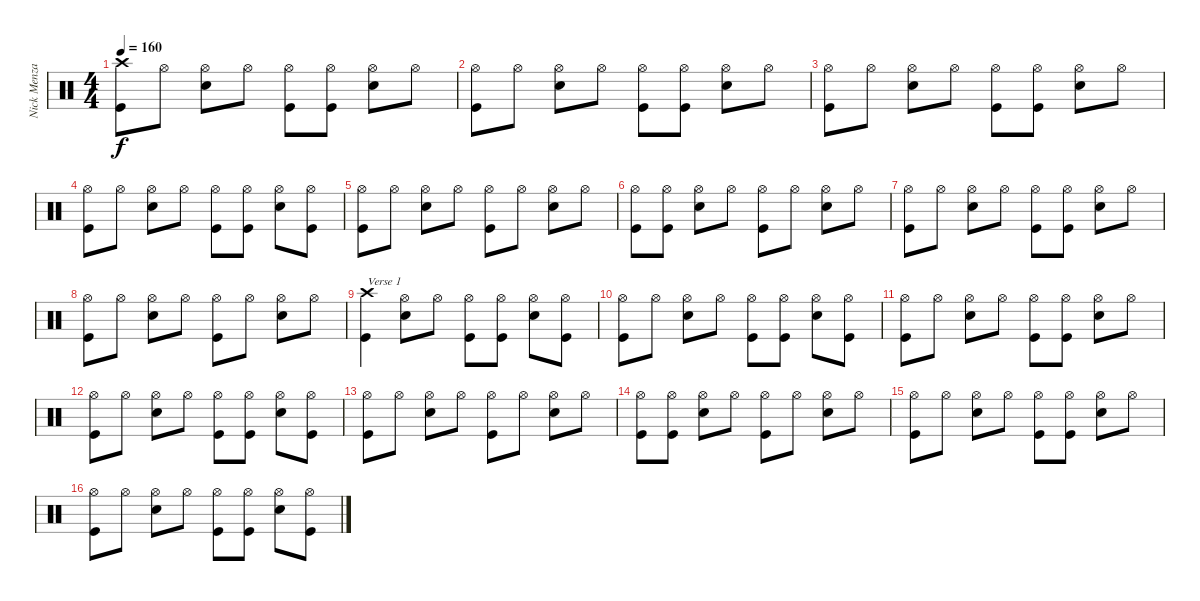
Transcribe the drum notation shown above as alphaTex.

\track ("Nick Menza" "Nick Menza") {instrument percussion}
\staff {score}
\articulation defaults
\ts (4 4)
\tempo 160
\clef neutral
\ks c
("Crash high (hit)" "Kick (hit)").8{dy f} "Hi-Hat (open)".8 ("Hi-Hat (open)" "Snare (hit) 2").8 "Hi-Hat (open)".8 ("Hi-Hat (open)" "Kick (hit)").8 ("Hi-Hat (open)" "Kick (hit)").8 ("Hi-Hat (open)" "Snare (hit) 2").8 "Hi-Hat (open)".8 |
("Hi-Hat (open)" "Kick (hit)").8 "Hi-Hat (open)".8 ("Hi-Hat (open)" "Snare (hit) 2").8 "Hi-Hat (open)".8 ("Hi-Hat (open)" "Kick (hit)").8 ("Hi-Hat (open)" "Kick (hit)").8 ("Hi-Hat (open)" "Snare (hit) 2").8 "Hi-Hat (open)".8 |
("Hi-Hat (open)" "Kick (hit)").8 "Hi-Hat (open)".8 ("Hi-Hat (open)" "Snare (hit) 2").8 "Hi-Hat (open)".8 ("Hi-Hat (open)" "Kick (hit)").8 ("Hi-Hat (open)" "Kick (hit)").8 ("Hi-Hat (open)" "Snare (hit) 2").8 "Hi-Hat (open)".8 |
("Hi-Hat (open)" "Kick (hit)").8 "Hi-Hat (open)".8 ("Hi-Hat (open)" "Snare (hit) 2").8 "Hi-Hat (open)".8 ("Hi-Hat (open)" "Kick (hit)").8 ("Hi-Hat (open)" "Kick (hit)").8 ("Hi-Hat (open)" "Snare (hit) 2").8 ("Hi-Hat (open)" "Kick (hit)").8 |
("Hi-Hat (open)" "Kick (hit)").8 "Hi-Hat (open)".8 ("Hi-Hat (open)" "Snare (hit) 2").8 "Hi-Hat (open)".8 ("Hi-Hat (open)" "Kick (hit)").8 "Hi-Hat (open)".8 ("Hi-Hat (open)" "Snare (hit) 2").8 "Hi-Hat (open)".8 |
("Hi-Hat (open)" "Kick (hit)").8 ("Hi-Hat (open)" "Kick (hit)").8 ("Hi-Hat (open)" "Snare (hit) 2").8 "Hi-Hat (open)".8 ("Hi-Hat (open)" "Kick (hit)").8 "Hi-Hat (open)".8 ("Hi-Hat (open)" "Snare (hit) 2").8 "Hi-Hat (open)".8 |
("Hi-Hat (open)" "Kick (hit)").8 "Hi-Hat (open)".8 ("Hi-Hat (open)" "Snare (hit) 2").8 "Hi-Hat (open)".8 ("Hi-Hat (open)" "Kick (hit)").8 ("Hi-Hat (open)" "Kick (hit)").8 ("Hi-Hat (open)" "Snare (hit) 2").8 "Hi-Hat (open)".8 |
("Hi-Hat (open)" "Kick (hit)").8 "Hi-Hat (open)".8 ("Hi-Hat (open)" "Snare (hit) 2").8 "Hi-Hat (open)".8 ("Hi-Hat (open)" "Kick (hit)").8 "Hi-Hat (open)".8 ("Hi-Hat (open)" "Snare (hit) 2").8 "Hi-Hat (open)".8 |
("Crash high (hit)" "Kick (hit)").4{txt "Verse 1"} ("Hi-Hat (open)" "Snare (hit) 2").8 "Hi-Hat (open)".8 ("Hi-Hat (open)" "Kick (hit)").8 ("Hi-Hat (open)" "Kick (hit)").8 ("Hi-Hat (open)" "Snare (hit) 2").8 ("Hi-Hat (open)" "Kick (hit)").8 |
("Hi-Hat (open)" "Kick (hit)").8 "Hi-Hat (open)".8 ("Hi-Hat (open)" "Snare (hit) 2").8 "Hi-Hat (open)".8 ("Hi-Hat (open)" "Kick (hit)").8 ("Hi-Hat (open)" "Kick (hit)").8 ("Hi-Hat (open)" "Snare (hit) 2").8 ("Hi-Hat (open)" "Kick (hit)").8 |
("Hi-Hat (open)" "Kick (hit)").8 "Hi-Hat (open)".8 ("Hi-Hat (open)" "Snare (hit) 2").8 "Hi-Hat (open)".8 ("Hi-Hat (open)" "Kick (hit)").8 ("Hi-Hat (open)" "Kick (hit)").8 ("Hi-Hat (open)" "Snare (hit) 2").8 "Hi-Hat (open)".8 |
("Hi-Hat (open)" "Kick (hit)").8 "Hi-Hat (open)".8 ("Hi-Hat (open)" "Snare (hit) 2").8 "Hi-Hat (open)".8 ("Hi-Hat (open)" "Kick (hit)").8 ("Hi-Hat (open)" "Kick (hit)").8 ("Hi-Hat (open)" "Snare (hit) 2").8 ("Hi-Hat (open)" "Kick (hit)").8 |
("Hi-Hat (open)" "Kick (hit)").8 "Hi-Hat (open)".8 ("Hi-Hat (open)" "Snare (hit) 2").8 "Hi-Hat (open)".8 ("Hi-Hat (open)" "Kick (hit)").8 "Hi-Hat (open)".8 ("Hi-Hat (open)" "Snare (hit) 2").8 "Hi-Hat (open)".8 |
("Hi-Hat (open)" "Kick (hit)").8 ("Hi-Hat (open)" "Kick (hit)").8 ("Hi-Hat (open)" "Snare (hit) 2").8 "Hi-Hat (open)".8 ("Hi-Hat (open)" "Kick (hit)").8 "Hi-Hat (open)".8 ("Hi-Hat (open)" "Snare (hit) 2").8 "Hi-Hat (open)".8 |
("Hi-Hat (open)" "Kick (hit)").8 "Hi-Hat (open)".8 ("Hi-Hat (open)" "Snare (hit) 2").8 "Hi-Hat (open)".8 ("Hi-Hat (open)" "Kick (hit)").8 ("Hi-Hat (open)" "Kick (hit)").8 ("Hi-Hat (open)" "Snare (hit) 2").8 "Hi-Hat (open)".8 |
("Hi-Hat (open)" "Kick (hit)").8 "Hi-Hat (open)".8 ("Hi-Hat (open)" "Snare (hit) 2").8 "Hi-Hat (open)".8 ("Hi-Hat (open)" "Kick (hit)").8 ("Hi-Hat (open)" "Kick (hit)").8 ("Hi-Hat (open)" "Snare (hit) 2").8 ("Hi-Hat (open)" "Kick (hit)").8
